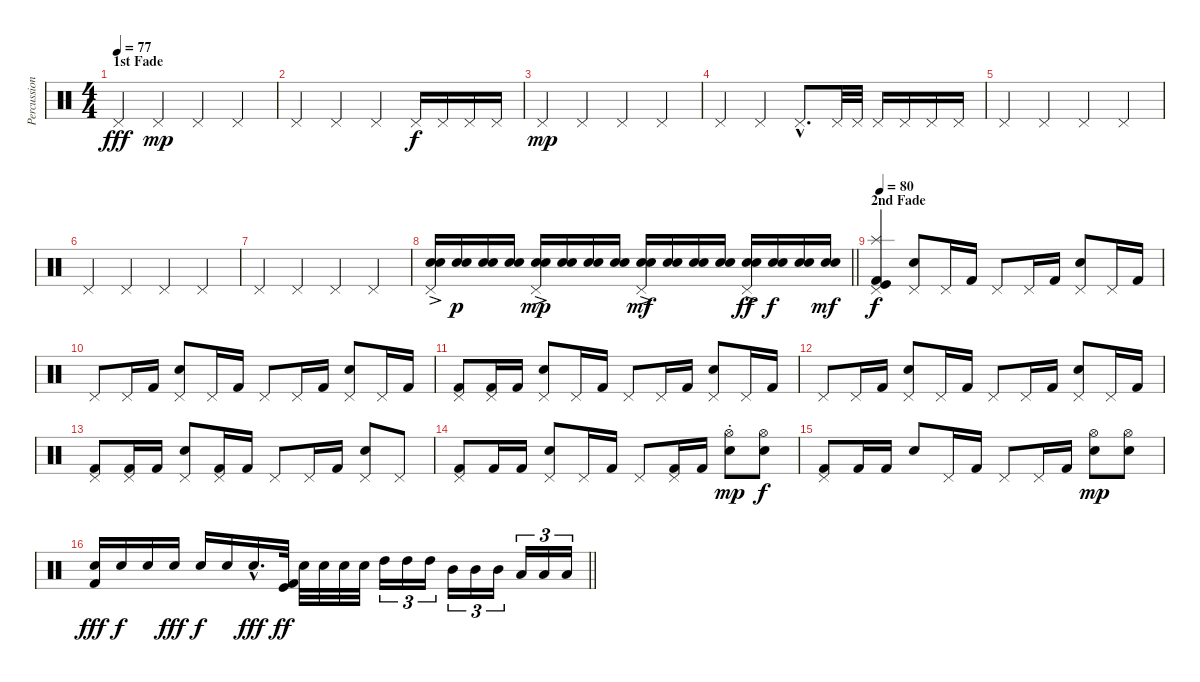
\track ("Percussion" "Percussion") {instrument percussion}
\staff {score}
\articulation defaults
\ts (4 4)
\section ("" "1st Fade")
\tempo 77
\clef neutral
\ks c "Pedal Hi-Hat (hit)".4{dy fff} "Pedal Hi-Hat (hit)".4{dy mp} "Pedal Hi-Hat (hit)".4 "Pedal Hi-Hat (hit)".4
|
"Pedal Hi-Hat (hit)".4 "Pedal Hi-Hat (hit)".4 "Pedal Hi-Hat (hit)".4 "Pedal Hi-Hat (hit)".16{dy f} "Pedal Hi-Hat (hit)".16 "Pedal Hi-Hat (hit)".16 "Pedal Hi-Hat (hit)".16 |
"Pedal Hi-Hat (hit)".4{dy mp} "Pedal Hi-Hat (hit)".4 "Pedal Hi-Hat (hit)".4 "Pedal Hi-Hat (hit)".4 |
"Pedal Hi-Hat (hit)".4 "Pedal Hi-Hat (hit)".4 "Pedal Hi-Hat (hit)"{hac}.8{d} "Pedal Hi-Hat (hit)".32 "Pedal Hi-Hat (hit)".32 "Pedal Hi-Hat (hit)".16 "Pedal Hi-Hat (hit)".16 "Pedal Hi-Hat (hit)".16 "Pedal Hi-Hat (hit)".16 |
"Pedal Hi-Hat (hit)".4 "Pedal Hi-Hat (hit)".4 "Pedal Hi-Hat (hit)".4 "Pedal Hi-Hat (hit)".4 |
"Pedal Hi-Hat (hit)".4 "Pedal Hi-Hat (hit)".4 "Pedal Hi-Hat (hit)".4 "Pedal Hi-Hat (hit)".4 |
"Pedal Hi-Hat (hit)".4 "Pedal Hi-Hat (hit)".4 "Pedal Hi-Hat (hit)".4 "Pedal Hi-Hat (hit)".4 |
\barLineRight lightlight
("Pedal Hi-Hat (hit)" "Electric Snare (hit)"{ac} "Snare (hit) 2"{ac}).16 ("Electric Snare (hit)" "Snare (hit) 2").16{dy p} ("Electric Snare (hit)" "Snare (hit) 2").16 ("Electric Snare (hit)" "Snare (hit) 2").16 ("Pedal Hi-Hat (hit)" "Electric Snare (hit)"{ac} "Snare (hit) 2"{ac}).16{dy mp} ("Electric Snare (hit)" "Snare (hit) 2").16 ("Electric Snare (hit)" "Snare (hit) 2").16 ("Electric Snare (hit)" "Snare (hit) 2").16 ("Pedal Hi-Hat (hit)" "Electric Snare (hit)"{ac} "Snare (hit) 2"{ac}).16{dy mf} ("Electric Snare (hit)" "Snare (hit) 2").16 ("Electric Snare (hit)" "Snare (hit) 2").16 ("Electric Snare (hit)" "Snare (hit) 2").16 ("Pedal Hi-Hat (hit)" "Electric Snare (hit)"{ac} "Snare (hit) 2"{ac}).16{dy ff} ("Electric Snare (hit)" "Snare (hit) 2").16{dy f} ("Electric Snare (hit)" "Snare (hit) 2").16 ("Electric Snare (hit)" "Snare (hit) 2").16{dy mf} |
\section ("" "2nd Fade")
\tempo 80
("Splash (hit)" "Pedal Hi-Hat (hit)" "Kick (hit)" "Kick (hit) 2").4{dy f} ("Snare (hit) 2" "Pedal Hi-Hat (hit)").8 "Pedal Hi-Hat (hit)".16 "Kick (hit) 2".16 "Pedal Hi-Hat (hit)".8 "Pedal Hi-Hat (hit)".16 "Kick (hit) 2".16 ("Snare (hit) 2" "Pedal Hi-Hat (hit)").8 "Pedal Hi-Hat (hit)".16 "Kick (hit) 2".16 |
"Pedal Hi-Hat (hit)".8 "Pedal Hi-Hat (hit)".16 "Kick (hit) 2".16 ("Snare (hit) 2" "Pedal Hi-Hat (hit)").8 "Pedal Hi-Hat (hit)".16 "Kick (hit) 2".16 "Pedal Hi-Hat (hit)".8 "Pedal Hi-Hat (hit)".16 "Kick (hit) 2".16 ("Snare (hit) 2" "Pedal Hi-Hat (hit)").8 "Pedal Hi-Hat (hit)".16 "Kick (hit) 2".16 |
("Pedal Hi-Hat (hit)" "Kick (hit) 2").8 ("Pedal Hi-Hat (hit)" "Kick (hit) 2").16 "Kick (hit) 2".16 ("Snare (hit) 2" "Pedal Hi-Hat (hit)").8 "Pedal Hi-Hat (hit)".16 "Kick (hit) 2".16 "Pedal Hi-Hat (hit)".8 "Pedal Hi-Hat (hit)".16 "Kick (hit) 2".16 ("Snare (hit) 2" "Pedal Hi-Hat (hit)").8 "Pedal Hi-Hat (hit)".16 "Kick (hit) 2".16 |
"Pedal Hi-Hat (hit)".8 "Pedal Hi-Hat (hit)".16 "Kick (hit) 2".16 ("Snare (hit) 2" "Pedal Hi-Hat (hit)").8 "Pedal Hi-Hat (hit)".16 "Kick (hit) 2".16 "Pedal Hi-Hat (hit)".8 "Pedal Hi-Hat (hit)".16 "Kick (hit) 2".16 ("Snare (hit) 2" "Pedal Hi-Hat (hit)").8 "Pedal Hi-Hat (hit)".16 "Kick (hit) 2".16 |
("Pedal Hi-Hat (hit)" "Kick (hit) 2").8 ("Pedal Hi-Hat (hit)" "Kick (hit) 2").16 "Kick (hit) 2".16 ("Snare (hit) 2" "Pedal Hi-Hat (hit)").8 ("Pedal Hi-Hat (hit)" "Kick (hit) 2").16 "Kick (hit) 2".16 "Pedal Hi-Hat (hit)".8 "Pedal Hi-Hat (hit)".16 "Kick (hit) 2".16 ("Snare (hit) 2" "Pedal Hi-Hat (hit)").8 "Pedal Hi-Hat (hit)".8 |
("Pedal Hi-Hat (hit)" "Kick (hit) 2").8 "Kick (hit) 2".16 "Kick (hit) 2".16 ("Snare (hit) 2" "Pedal Hi-Hat (hit)").8 "Pedal Hi-Hat (hit)".16 "Kick (hit) 2".16 "Pedal Hi-Hat (hit)".8 ("Pedal Hi-Hat (hit)" "Kick (hit) 2").16 "Kick (hit) 2".16 ("Snare (hit) 2"{st} "Hi-Hat (open)").8{dy mp} ("Snare (hit) 2" "Hi-Hat (open)").8{dy f} |
("Pedal Hi-Hat (hit)" "Kick (hit) 2").8 "Kick (hit) 2".16 "Kick (hit) 2".16 "Snare (hit) 2".8 "Pedal Hi-Hat (hit)".16 "Kick (hit) 2".16 "Pedal Hi-Hat (hit)".8 "Pedal Hi-Hat (hit)".16 "Kick (hit) 2".16 ("Snare (hit) 2" "Hi-Hat (open)").8{dy mp} ("Snare (hit) 2" "Hi-Hat (open)").8 |
\barLineRight lightlight
("Electric Snare (hit)" "Kick (hit) 2").16{dy fff} "Electric Snare (hit)".16{dy f} "Electric Snare (hit)".16 "Electric Snare (hit)".16{dy fff} "Electric Snare (hit)".16{dy f} "Electric Snare (hit)".16 "Electric Snare (hit)"{hac}.16{d dy fff} ("Kick (hit)" "Kick (hit) 2").32{dy ff} "Electric Snare (hit)".32 "Electric Snare (hit)".32 "Electric Snare (hit)".32 "Electric Snare (hit)".32 "High Tom (hit)".16{tu (3 2) balance 14} "High Tom (hit)".16{tu (3 2) balance 13} "High Tom (hit)".16{tu (3 2) balance 12} "Mid Tom (hit)".16{tu (3 2) balance 11} "Mid Tom (hit)".16{tu (3 2) balance 10} "Mid Tom (hit)".16{tu (3 2) balance 10} "Low Tom (hit)".16{tu (3 2) balance 8} "Low Tom (hit)".16{tu (3 2) balance 7} "Low Tom (hit)".16{tu (3 2) balance 8}
